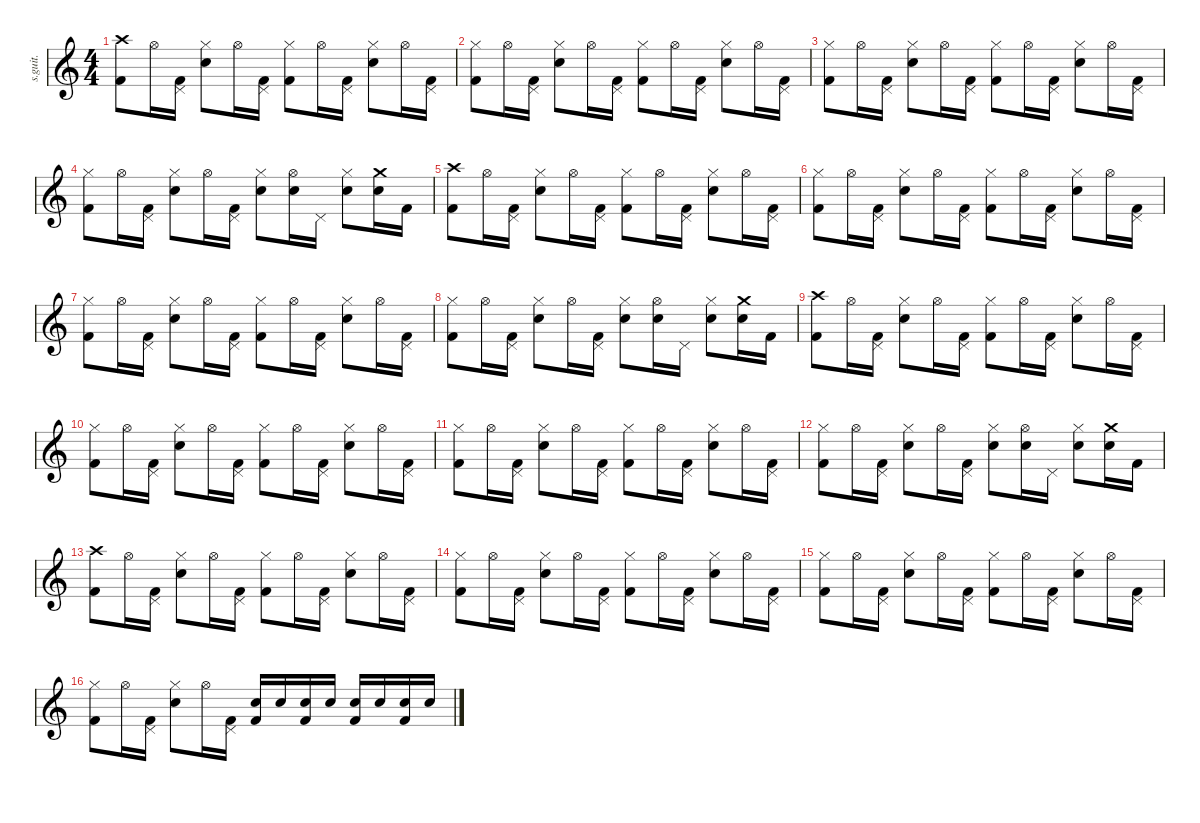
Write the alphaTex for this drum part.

\defaultSystemsLayout 4
\hideDynamics
\bracketExtendMode nobrackets
\track ("Bob Burns (Drums)" "s.guit.") {instrument percussion}
\staff {score}
\articulation defaults
\ts (4 4)
\tempo (60 hide)
\clef g2
\ks c
("Crash high (hit)" "Kick (hit) 2").8{lyrics (0 "") lyrics (1 "") lyrics (2 "") lyrics (3 "") lyrics (4 "") dy f} "Hi-Hat (open)".16{lyrics (0 "") lyrics (1 "") lyrics (2 "") lyrics (3 "") lyrics (4 "")} ("Pedal Hi-Hat (hit)" "Kick (hit) 2").16{lyrics (0 "") lyrics (1 "") lyrics (2 "") lyrics (3 "") lyrics (4 "")} ("Hi-Hat (closed)" "Electric Snare (hit)").8{lyrics (0 "") lyrics (1 "") lyrics (2 "") lyrics (3 "") lyrics (4 "")} "Hi-Hat (open)".16{lyrics (0 "") lyrics (1 "") lyrics (2 "") lyrics (3 "") lyrics (4 "")} ("Pedal Hi-Hat (hit)" "Kick (hit) 2").16{lyrics (0 "") lyrics (1 "") lyrics (2 "") lyrics (3 "") lyrics (4 "")} ("Hi-Hat (closed)" "Kick (hit) 2").8{lyrics (0 "") lyrics (1 "") lyrics (2 "") lyrics (3 "") lyrics (4 "")} "Hi-Hat (open)".16{lyrics (0 "") lyrics (1 "") lyrics (2 "") lyrics (3 "") lyrics (4 "")} ("Pedal Hi-Hat (hit)" "Kick (hit) 2").16{lyrics (0 "") lyrics (1 "") lyrics (2 "") lyrics (3 "") lyrics (4 "")} ("Hi-Hat (closed)" "Electric Snare (hit)").8{lyrics (0 "") lyrics (1 "") lyrics (2 "") lyrics (3 "") lyrics (4 "")} "Hi-Hat (open)".16{lyrics (0 "") lyrics (1 "") lyrics (2 "") lyrics (3 "") lyrics (4 "")} ("Pedal Hi-Hat (hit)" "Kick (hit) 2").16{lyrics (0 "") lyrics (1 "") lyrics (2 "") lyrics (3 "") lyrics (4 "")} |
("Hi-Hat (closed)" "Kick (hit) 2").8{lyrics (0 "") lyrics (1 "") lyrics (2 "") lyrics (3 "") lyrics (4 "")} "Hi-Hat (open)".16{lyrics (0 "") lyrics (1 "") lyrics (2 "") lyrics (3 "") lyrics (4 "")} ("Pedal Hi-Hat (hit)" "Kick (hit) 2").16{lyrics (0 "") lyrics (1 "") lyrics (2 "") lyrics (3 "") lyrics (4 "")} ("Hi-Hat (closed)" "Electric Snare (hit)").8{lyrics (0 "") lyrics (1 "") lyrics (2 "") lyrics (3 "") lyrics (4 "")} "Hi-Hat (open)".16{lyrics (0 "") lyrics (1 "") lyrics (2 "") lyrics (3 "") lyrics (4 "")} ("Pedal Hi-Hat (hit)" "Kick (hit) 2").16{lyrics (0 "") lyrics (1 "") lyrics (2 "") lyrics (3 "") lyrics (4 "")} ("Hi-Hat (closed)" "Kick (hit) 2").8{lyrics (0 "") lyrics (1 "") lyrics (2 "") lyrics (3 "") lyrics (4 "")} "Hi-Hat (open)".16{lyrics (0 "") lyrics (1 "") lyrics (2 "") lyrics (3 "") lyrics (4 "")} ("Pedal Hi-Hat (hit)" "Kick (hit) 2").16{lyrics (0 "") lyrics (1 "") lyrics (2 "") lyrics (3 "") lyrics (4 "")} ("Hi-Hat (closed)" "Electric Snare (hit)").8{lyrics (0 "") lyrics (1 "") lyrics (2 "") lyrics (3 "") lyrics (4 "")} "Hi-Hat (open)".16{lyrics (0 "") lyrics (1 "") lyrics (2 "") lyrics (3 "") lyrics (4 "")} ("Pedal Hi-Hat (hit)" "Kick (hit) 2").16{lyrics (0 "") lyrics (1 "") lyrics (2 "") lyrics (3 "") lyrics (4 "")} |
("Hi-Hat (closed)" "Kick (hit) 2").8{lyrics (0 "") lyrics (1 "") lyrics (2 "") lyrics (3 "") lyrics (4 "")} "Hi-Hat (open)".16{lyrics (0 "") lyrics (1 "") lyrics (2 "") lyrics (3 "") lyrics (4 "")} ("Pedal Hi-Hat (hit)" "Kick (hit) 2").16{lyrics (0 "") lyrics (1 "") lyrics (2 "") lyrics (3 "") lyrics (4 "")} ("Hi-Hat (closed)" "Electric Snare (hit)").8{lyrics (0 "") lyrics (1 "") lyrics (2 "") lyrics (3 "") lyrics (4 "")} "Hi-Hat (open)".16{lyrics (0 "") lyrics (1 "") lyrics (2 "") lyrics (3 "") lyrics (4 "")} ("Pedal Hi-Hat (hit)" "Kick (hit) 2").16{lyrics (0 "") lyrics (1 "") lyrics (2 "") lyrics (3 "") lyrics (4 "")} ("Hi-Hat (closed)" "Kick (hit) 2").8{lyrics (0 "") lyrics (1 "") lyrics (2 "") lyrics (3 "") lyrics (4 "")} "Hi-Hat (open)".16{lyrics (0 "") lyrics (1 "") lyrics (2 "") lyrics (3 "") lyrics (4 "")} ("Pedal Hi-Hat (hit)" "Kick (hit) 2").16{lyrics (0 "") lyrics (1 "") lyrics (2 "") lyrics (3 "") lyrics (4 "")} ("Hi-Hat (closed)" "Electric Snare (hit)").8{lyrics (0 "") lyrics (1 "") lyrics (2 "") lyrics (3 "") lyrics (4 "")} "Hi-Hat (open)".16{lyrics (0 "") lyrics (1 "") lyrics (2 "") lyrics (3 "") lyrics (4 "")} ("Pedal Hi-Hat (hit)" "Kick (hit) 2").16{lyrics (0 "") lyrics (1 "") lyrics (2 "") lyrics (3 "") lyrics (4 "")} |
("Hi-Hat (closed)" "Kick (hit) 2").8{lyrics (0 "") lyrics (1 "") lyrics (2 "") lyrics (3 "") lyrics (4 "")} "Hi-Hat (open)".16{lyrics (0 "") lyrics (1 "") lyrics (2 "") lyrics (3 "") lyrics (4 "")} ("Pedal Hi-Hat (hit)" "Kick (hit) 2").16{lyrics (0 "") lyrics (1 "") lyrics (2 "") lyrics (3 "") lyrics (4 "")} ("Hi-Hat (closed)" "Electric Snare (hit)").8{lyrics (0 "") lyrics (1 "") lyrics (2 "") lyrics (3 "") lyrics (4 "")} "Hi-Hat (open)".16{lyrics (0 "") lyrics (1 "") lyrics (2 "") lyrics (3 "") lyrics (4 "")} ("Pedal Hi-Hat (hit)" "Kick (hit) 2").16{lyrics (0 "") lyrics (1 "") lyrics (2 "") lyrics (3 "") lyrics (4 "")} ("Hi-Hat (closed)" "Electric Snare (hit)").8{lyrics (0 "") lyrics (1 "") lyrics (2 "") lyrics (3 "") lyrics (4 "")} ("Hi-Hat (open)" "Electric Snare (hit)").16{lyrics (0 "") lyrics (1 "") lyrics (2 "") lyrics (3 "") lyrics (4 "")} "Pedal Hi-Hat (hit)".16{lyrics (0 "") lyrics (1 "") lyrics (2 "") lyrics (3 "") lyrics (4 "")} ("Hi-Hat (closed)" "Electric Snare (hit)").8{lyrics (0 "") lyrics (1 "") lyrics (2 "") lyrics (3 "") lyrics (4 "")} ("Crash medium (hit)" "Electric Snare (hit)").16{lyrics (0 "") lyrics (1 "") lyrics (2 "") lyrics (3 "") lyrics (4 "")} "Kick (hit) 2".16{lyrics (0 "") lyrics (1 "") lyrics (2 "") lyrics (3 "") lyrics (4 "")} |
("Crash high (hit)" "Kick (hit) 2").8{lyrics (0 "") lyrics (1 "") lyrics (2 "") lyrics (3 "") lyrics (4 "")} "Hi-Hat (open)".16{lyrics (0 "") lyrics (1 "") lyrics (2 "") lyrics (3 "") lyrics (4 "")} ("Pedal Hi-Hat (hit)" "Kick (hit) 2").16{lyrics (0 "") lyrics (1 "") lyrics (2 "") lyrics (3 "") lyrics (4 "")} ("Hi-Hat (closed)" "Electric Snare (hit)").8{lyrics (0 "") lyrics (1 "") lyrics (2 "") lyrics (3 "") lyrics (4 "")} "Hi-Hat (open)".16{lyrics (0 "") lyrics (1 "") lyrics (2 "") lyrics (3 "") lyrics (4 "")} ("Pedal Hi-Hat (hit)" "Kick (hit) 2").16{lyrics (0 "") lyrics (1 "") lyrics (2 "") lyrics (3 "") lyrics (4 "")} ("Hi-Hat (closed)" "Kick (hit) 2").8{lyrics (0 "") lyrics (1 "") lyrics (2 "") lyrics (3 "") lyrics (4 "")} "Hi-Hat (open)".16{lyrics (0 "") lyrics (1 "") lyrics (2 "") lyrics (3 "") lyrics (4 "")} ("Pedal Hi-Hat (hit)" "Kick (hit) 2").16{lyrics (0 "") lyrics (1 "") lyrics (2 "") lyrics (3 "") lyrics (4 "")} ("Hi-Hat (closed)" "Electric Snare (hit)").8{lyrics (0 "") lyrics (1 "") lyrics (2 "") lyrics (3 "") lyrics (4 "")} "Hi-Hat (open)".16{lyrics (0 "") lyrics (1 "") lyrics (2 "") lyrics (3 "") lyrics (4 "")} ("Pedal Hi-Hat (hit)" "Kick (hit) 2").16{lyrics (0 "") lyrics (1 "") lyrics (2 "") lyrics (3 "") lyrics (4 "")} |
("Hi-Hat (closed)" "Kick (hit) 2").8{lyrics (0 "") lyrics (1 "") lyrics (2 "") lyrics (3 "") lyrics (4 "")} "Hi-Hat (open)".16{lyrics (0 "") lyrics (1 "") lyrics (2 "") lyrics (3 "") lyrics (4 "")} ("Pedal Hi-Hat (hit)" "Kick (hit) 2").16{lyrics (0 "") lyrics (1 "") lyrics (2 "") lyrics (3 "") lyrics (4 "")} ("Hi-Hat (closed)" "Electric Snare (hit)").8{lyrics (0 "") lyrics (1 "") lyrics (2 "") lyrics (3 "") lyrics (4 "")} "Hi-Hat (open)".16{lyrics (0 "") lyrics (1 "") lyrics (2 "") lyrics (3 "") lyrics (4 "")} ("Pedal Hi-Hat (hit)" "Kick (hit) 2").16{lyrics (0 "") lyrics (1 "") lyrics (2 "") lyrics (3 "") lyrics (4 "")} ("Hi-Hat (closed)" "Kick (hit) 2").8{lyrics (0 "") lyrics (1 "") lyrics (2 "") lyrics (3 "") lyrics (4 "")} "Hi-Hat (open)".16{lyrics (0 "") lyrics (1 "") lyrics (2 "") lyrics (3 "") lyrics (4 "")} ("Pedal Hi-Hat (hit)" "Kick (hit) 2").16{lyrics (0 "") lyrics (1 "") lyrics (2 "") lyrics (3 "") lyrics (4 "")} ("Hi-Hat (closed)" "Electric Snare (hit)").8{lyrics (0 "") lyrics (1 "") lyrics (2 "") lyrics (3 "") lyrics (4 "")} "Hi-Hat (open)".16{lyrics (0 "") lyrics (1 "") lyrics (2 "") lyrics (3 "") lyrics (4 "")} ("Pedal Hi-Hat (hit)" "Kick (hit) 2").16{lyrics (0 "") lyrics (1 "") lyrics (2 "") lyrics (3 "") lyrics (4 "")} |
("Hi-Hat (closed)" "Kick (hit) 2").8{lyrics (0 "") lyrics (1 "") lyrics (2 "") lyrics (3 "") lyrics (4 "")} "Hi-Hat (open)".16{lyrics (0 "") lyrics (1 "") lyrics (2 "") lyrics (3 "") lyrics (4 "")} ("Pedal Hi-Hat (hit)" "Kick (hit) 2").16{lyrics (0 "") lyrics (1 "") lyrics (2 "") lyrics (3 "") lyrics (4 "")} ("Hi-Hat (closed)" "Electric Snare (hit)").8{lyrics (0 "") lyrics (1 "") lyrics (2 "") lyrics (3 "") lyrics (4 "")} "Hi-Hat (open)".16{lyrics (0 "") lyrics (1 "") lyrics (2 "") lyrics (3 "") lyrics (4 "")} ("Pedal Hi-Hat (hit)" "Kick (hit) 2").16{lyrics (0 "") lyrics (1 "") lyrics (2 "") lyrics (3 "") lyrics (4 "")} ("Hi-Hat (closed)" "Kick (hit) 2").8{lyrics (0 "") lyrics (1 "") lyrics (2 "") lyrics (3 "") lyrics (4 "")} "Hi-Hat (open)".16{lyrics (0 "") lyrics (1 "") lyrics (2 "") lyrics (3 "") lyrics (4 "")} ("Pedal Hi-Hat (hit)" "Kick (hit) 2").16{lyrics (0 "") lyrics (1 "") lyrics (2 "") lyrics (3 "") lyrics (4 "")} ("Hi-Hat (closed)" "Electric Snare (hit)").8{lyrics (0 "") lyrics (1 "") lyrics (2 "") lyrics (3 "") lyrics (4 "")} "Hi-Hat (open)".16{lyrics (0 "") lyrics (1 "") lyrics (2 "") lyrics (3 "") lyrics (4 "")} ("Pedal Hi-Hat (hit)" "Kick (hit) 2").16{lyrics (0 "") lyrics (1 "") lyrics (2 "") lyrics (3 "") lyrics (4 "")} |
("Hi-Hat (closed)" "Kick (hit) 2").8{lyrics (0 "") lyrics (1 "") lyrics (2 "") lyrics (3 "") lyrics (4 "")} "Hi-Hat (open)".16{lyrics (0 "") lyrics (1 "") lyrics (2 "") lyrics (3 "") lyrics (4 "")} ("Pedal Hi-Hat (hit)" "Kick (hit) 2").16{lyrics (0 "") lyrics (1 "") lyrics (2 "") lyrics (3 "") lyrics (4 "")} ("Hi-Hat (closed)" "Electric Snare (hit)").8{lyrics (0 "") lyrics (1 "") lyrics (2 "") lyrics (3 "") lyrics (4 "")} "Hi-Hat (open)".16{lyrics (0 "") lyrics (1 "") lyrics (2 "") lyrics (3 "") lyrics (4 "")} ("Pedal Hi-Hat (hit)" "Kick (hit) 2").16{lyrics (0 "") lyrics (1 "") lyrics (2 "") lyrics (3 "") lyrics (4 "")} ("Hi-Hat (closed)" "Electric Snare (hit)").8{lyrics (0 "") lyrics (1 "") lyrics (2 "") lyrics (3 "") lyrics (4 "")} ("Hi-Hat (open)" "Electric Snare (hit)").16{lyrics (0 "") lyrics (1 "") lyrics (2 "") lyrics (3 "") lyrics (4 "")} "Pedal Hi-Hat (hit)".16{lyrics (0 "") lyrics (1 "") lyrics (2 "") lyrics (3 "") lyrics (4 "")} ("Hi-Hat (closed)" "Electric Snare (hit)").8{lyrics (0 "") lyrics (1 "") lyrics (2 "") lyrics (3 "") lyrics (4 "")} ("Crash medium (hit)" "Electric Snare (hit)").16{lyrics (0 "") lyrics (1 "") lyrics (2 "") lyrics (3 "") lyrics (4 "")} "Kick (hit) 2".16{lyrics (0 "") lyrics (1 "") lyrics (2 "") lyrics (3 "") lyrics (4 "")} |
("Crash high (hit)" "Kick (hit) 2").8{lyrics (0 "") lyrics (1 "") lyrics (2 "") lyrics (3 "") lyrics (4 "")} "Hi-Hat (open)".16{lyrics (0 "") lyrics (1 "") lyrics (2 "") lyrics (3 "") lyrics (4 "")} ("Pedal Hi-Hat (hit)" "Kick (hit) 2").16{lyrics (0 "") lyrics (1 "") lyrics (2 "") lyrics (3 "") lyrics (4 "")} ("Hi-Hat (closed)" "Electric Snare (hit)").8{lyrics (0 "") lyrics (1 "") lyrics (2 "") lyrics (3 "") lyrics (4 "")} "Hi-Hat (open)".16{lyrics (0 "") lyrics (1 "") lyrics (2 "") lyrics (3 "") lyrics (4 "")} ("Pedal Hi-Hat (hit)" "Kick (hit) 2").16{lyrics (0 "") lyrics (1 "") lyrics (2 "") lyrics (3 "") lyrics (4 "")} ("Hi-Hat (closed)" "Kick (hit) 2").8{lyrics (0 "") lyrics (1 "") lyrics (2 "") lyrics (3 "") lyrics (4 "")} "Hi-Hat (open)".16{lyrics (0 "") lyrics (1 "") lyrics (2 "") lyrics (3 "") lyrics (4 "")} ("Pedal Hi-Hat (hit)" "Kick (hit) 2").16{lyrics (0 "") lyrics (1 "") lyrics (2 "") lyrics (3 "") lyrics (4 "")} ("Hi-Hat (closed)" "Electric Snare (hit)").8{lyrics (0 "") lyrics (1 "") lyrics (2 "") lyrics (3 "") lyrics (4 "")} "Hi-Hat (open)".16{lyrics (0 "") lyrics (1 "") lyrics (2 "") lyrics (3 "") lyrics (4 "")} ("Pedal Hi-Hat (hit)" "Kick (hit) 2").16{lyrics (0 "") lyrics (1 "") lyrics (2 "") lyrics (3 "") lyrics (4 "")} |
("Hi-Hat (closed)" "Kick (hit) 2").8{lyrics (0 "") lyrics (1 "") lyrics (2 "") lyrics (3 "") lyrics (4 "")} "Hi-Hat (open)".16{lyrics (0 "") lyrics (1 "") lyrics (2 "") lyrics (3 "") lyrics (4 "")} ("Pedal Hi-Hat (hit)" "Kick (hit) 2").16{lyrics (0 "") lyrics (1 "") lyrics (2 "") lyrics (3 "") lyrics (4 "")} ("Hi-Hat (closed)" "Electric Snare (hit)").8{lyrics (0 "") lyrics (1 "") lyrics (2 "") lyrics (3 "") lyrics (4 "")} "Hi-Hat (open)".16{lyrics (0 "") lyrics (1 "") lyrics (2 "") lyrics (3 "") lyrics (4 "")} ("Pedal Hi-Hat (hit)" "Kick (hit) 2").16{lyrics (0 "") lyrics (1 "") lyrics (2 "") lyrics (3 "") lyrics (4 "")} ("Hi-Hat (closed)" "Kick (hit) 2").8{lyrics (0 "") lyrics (1 "") lyrics (2 "") lyrics (3 "") lyrics (4 "")} "Hi-Hat (open)".16{lyrics (0 "") lyrics (1 "") lyrics (2 "") lyrics (3 "") lyrics (4 "")} ("Pedal Hi-Hat (hit)" "Kick (hit) 2").16{lyrics (0 "") lyrics (1 "") lyrics (2 "") lyrics (3 "") lyrics (4 "")} ("Hi-Hat (closed)" "Electric Snare (hit)").8{lyrics (0 "") lyrics (1 "") lyrics (2 "") lyrics (3 "") lyrics (4 "")} "Hi-Hat (open)".16{lyrics (0 "") lyrics (1 "") lyrics (2 "") lyrics (3 "") lyrics (4 "")} ("Pedal Hi-Hat (hit)" "Kick (hit) 2").16{lyrics (0 "") lyrics (1 "") lyrics (2 "") lyrics (3 "") lyrics (4 "")} |
("Hi-Hat (closed)" "Kick (hit) 2").8{lyrics (0 "") lyrics (1 "") lyrics (2 "") lyrics (3 "") lyrics (4 "")} "Hi-Hat (open)".16{lyrics (0 "") lyrics (1 "") lyrics (2 "") lyrics (3 "") lyrics (4 "")} ("Pedal Hi-Hat (hit)" "Kick (hit) 2").16{lyrics (0 "") lyrics (1 "") lyrics (2 "") lyrics (3 "") lyrics (4 "")} ("Hi-Hat (closed)" "Electric Snare (hit)").8{lyrics (0 "") lyrics (1 "") lyrics (2 "") lyrics (3 "") lyrics (4 "")} "Hi-Hat (open)".16{lyrics (0 "") lyrics (1 "") lyrics (2 "") lyrics (3 "") lyrics (4 "")} ("Pedal Hi-Hat (hit)" "Kick (hit) 2").16{lyrics (0 "") lyrics (1 "") lyrics (2 "") lyrics (3 "") lyrics (4 "")} ("Hi-Hat (closed)" "Kick (hit) 2").8{lyrics (0 "") lyrics (1 "") lyrics (2 "") lyrics (3 "") lyrics (4 "")} "Hi-Hat (open)".16{lyrics (0 "") lyrics (1 "") lyrics (2 "") lyrics (3 "") lyrics (4 "")} ("Pedal Hi-Hat (hit)" "Kick (hit) 2").16{lyrics (0 "") lyrics (1 "") lyrics (2 "") lyrics (3 "") lyrics (4 "")} ("Hi-Hat (closed)" "Electric Snare (hit)").8{lyrics (0 "") lyrics (1 "") lyrics (2 "") lyrics (3 "") lyrics (4 "")} "Hi-Hat (open)".16{lyrics (0 "") lyrics (1 "") lyrics (2 "") lyrics (3 "") lyrics (4 "")} ("Pedal Hi-Hat (hit)" "Kick (hit) 2").16{lyrics (0 "") lyrics (1 "") lyrics (2 "") lyrics (3 "") lyrics (4 "")} |
("Hi-Hat (closed)" "Kick (hit) 2").8{lyrics (0 "") lyrics (1 "") lyrics (2 "") lyrics (3 "") lyrics (4 "")} "Hi-Hat (open)".16{lyrics (0 "") lyrics (1 "") lyrics (2 "") lyrics (3 "") lyrics (4 "")} ("Pedal Hi-Hat (hit)" "Kick (hit) 2").16{lyrics (0 "") lyrics (1 "") lyrics (2 "") lyrics (3 "") lyrics (4 "")} ("Hi-Hat (closed)" "Electric Snare (hit)").8{lyrics (0 "") lyrics (1 "") lyrics (2 "") lyrics (3 "") lyrics (4 "")} "Hi-Hat (open)".16{lyrics (0 "") lyrics (1 "") lyrics (2 "") lyrics (3 "") lyrics (4 "")} ("Pedal Hi-Hat (hit)" "Kick (hit) 2").16{lyrics (0 "") lyrics (1 "") lyrics (2 "") lyrics (3 "") lyrics (4 "")} ("Hi-Hat (closed)" "Electric Snare (hit)").8{lyrics (0 "") lyrics (1 "") lyrics (2 "") lyrics (3 "") lyrics (4 "")} ("Hi-Hat (open)" "Electric Snare (hit)").16{lyrics (0 "") lyrics (1 "") lyrics (2 "") lyrics (3 "") lyrics (4 "")} "Pedal Hi-Hat (hit)".16{lyrics (0 "") lyrics (1 "") lyrics (2 "") lyrics (3 "") lyrics (4 "")} ("Hi-Hat (closed)" "Electric Snare (hit)").8{lyrics (0 "") lyrics (1 "") lyrics (2 "") lyrics (3 "") lyrics (4 "")} ("Crash medium (hit)" "Electric Snare (hit)").16{lyrics (0 "") lyrics (1 "") lyrics (2 "") lyrics (3 "") lyrics (4 "")} "Kick (hit) 2".16{lyrics (0 "") lyrics (1 "") lyrics (2 "") lyrics (3 "") lyrics (4 "")} |
("Crash high (hit)" "Kick (hit) 2").8{lyrics (0 "") lyrics (1 "") lyrics (2 "") lyrics (3 "") lyrics (4 "")} "Hi-Hat (open)".16{lyrics (0 "") lyrics (1 "") lyrics (2 "") lyrics (3 "") lyrics (4 "")} ("Pedal Hi-Hat (hit)" "Kick (hit) 2").16{lyrics (0 "") lyrics (1 "") lyrics (2 "") lyrics (3 "") lyrics (4 "")} ("Hi-Hat (closed)" "Electric Snare (hit)").8{lyrics (0 "") lyrics (1 "") lyrics (2 "") lyrics (3 "") lyrics (4 "")} "Hi-Hat (open)".16{lyrics (0 "") lyrics (1 "") lyrics (2 "") lyrics (3 "") lyrics (4 "")} ("Pedal Hi-Hat (hit)" "Kick (hit) 2").16{lyrics (0 "") lyrics (1 "") lyrics (2 "") lyrics (3 "") lyrics (4 "")} ("Hi-Hat (closed)" "Kick (hit) 2").8{lyrics (0 "") lyrics (1 "") lyrics (2 "") lyrics (3 "") lyrics (4 "")} "Hi-Hat (open)".16{lyrics (0 "") lyrics (1 "") lyrics (2 "") lyrics (3 "") lyrics (4 "")} ("Pedal Hi-Hat (hit)" "Kick (hit) 2").16{lyrics (0 "") lyrics (1 "") lyrics (2 "") lyrics (3 "") lyrics (4 "")} ("Hi-Hat (closed)" "Electric Snare (hit)").8{lyrics (0 "") lyrics (1 "") lyrics (2 "") lyrics (3 "") lyrics (4 "")} "Hi-Hat (open)".16{lyrics (0 "") lyrics (1 "") lyrics (2 "") lyrics (3 "") lyrics (4 "")} ("Pedal Hi-Hat (hit)" "Kick (hit) 2").16{lyrics (0 "") lyrics (1 "") lyrics (2 "") lyrics (3 "") lyrics (4 "")} |
("Hi-Hat (closed)" "Kick (hit) 2").8{lyrics (0 "") lyrics (1 "") lyrics (2 "") lyrics (3 "") lyrics (4 "")} "Hi-Hat (open)".16{lyrics (0 "") lyrics (1 "") lyrics (2 "") lyrics (3 "") lyrics (4 "")} ("Pedal Hi-Hat (hit)" "Kick (hit) 2").16{lyrics (0 "") lyrics (1 "") lyrics (2 "") lyrics (3 "") lyrics (4 "")} ("Hi-Hat (closed)" "Electric Snare (hit)").8{lyrics (0 "") lyrics (1 "") lyrics (2 "") lyrics (3 "") lyrics (4 "")} "Hi-Hat (open)".16{lyrics (0 "") lyrics (1 "") lyrics (2 "") lyrics (3 "") lyrics (4 "")} ("Pedal Hi-Hat (hit)" "Kick (hit) 2").16{lyrics (0 "") lyrics (1 "") lyrics (2 "") lyrics (3 "") lyrics (4 "")} ("Hi-Hat (closed)" "Kick (hit) 2").8{lyrics (0 "") lyrics (1 "") lyrics (2 "") lyrics (3 "") lyrics (4 "")} "Hi-Hat (open)".16{lyrics (0 "") lyrics (1 "") lyrics (2 "") lyrics (3 "") lyrics (4 "")} ("Pedal Hi-Hat (hit)" "Kick (hit) 2").16{lyrics (0 "") lyrics (1 "") lyrics (2 "") lyrics (3 "") lyrics (4 "")} ("Hi-Hat (closed)" "Electric Snare (hit)").8{lyrics (0 "") lyrics (1 "") lyrics (2 "") lyrics (3 "") lyrics (4 "")} "Hi-Hat (open)".16{lyrics (0 "") lyrics (1 "") lyrics (2 "") lyrics (3 "") lyrics (4 "")} ("Pedal Hi-Hat (hit)" "Kick (hit) 2").16{lyrics (0 "") lyrics (1 "") lyrics (2 "") lyrics (3 "") lyrics (4 "")} |
("Hi-Hat (closed)" "Kick (hit) 2").8{lyrics (0 "") lyrics (1 "") lyrics (2 "") lyrics (3 "") lyrics (4 "")} "Hi-Hat (open)".16{lyrics (0 "") lyrics (1 "") lyrics (2 "") lyrics (3 "") lyrics (4 "")} ("Pedal Hi-Hat (hit)" "Kick (hit) 2").16{lyrics (0 "") lyrics (1 "") lyrics (2 "") lyrics (3 "") lyrics (4 "")} ("Hi-Hat (closed)" "Electric Snare (hit)").8{lyrics (0 "") lyrics (1 "") lyrics (2 "") lyrics (3 "") lyrics (4 "")} "Hi-Hat (open)".16{lyrics (0 "") lyrics (1 "") lyrics (2 "") lyrics (3 "") lyrics (4 "")} ("Pedal Hi-Hat (hit)" "Kick (hit) 2").16{lyrics (0 "") lyrics (1 "") lyrics (2 "") lyrics (3 "") lyrics (4 "")} ("Hi-Hat (closed)" "Kick (hit) 2").8{lyrics (0 "") lyrics (1 "") lyrics (2 "") lyrics (3 "") lyrics (4 "")} "Hi-Hat (open)".16{lyrics (0 "") lyrics (1 "") lyrics (2 "") lyrics (3 "") lyrics (4 "")} ("Pedal Hi-Hat (hit)" "Kick (hit) 2").16{lyrics (0 "") lyrics (1 "") lyrics (2 "") lyrics (3 "") lyrics (4 "")} ("Hi-Hat (closed)" "Electric Snare (hit)").8{lyrics (0 "") lyrics (1 "") lyrics (2 "") lyrics (3 "") lyrics (4 "")} "Hi-Hat (open)".16{lyrics (0 "") lyrics (1 "") lyrics (2 "") lyrics (3 "") lyrics (4 "")} ("Pedal Hi-Hat (hit)" "Kick (hit) 2").16{lyrics (0 "") lyrics (1 "") lyrics (2 "") lyrics (3 "") lyrics (4 "")} |
("Hi-Hat (closed)" "Kick (hit) 2").8{lyrics (0 "") lyrics (1 "") lyrics (2 "") lyrics (3 "") lyrics (4 "")} "Hi-Hat (open)".16{lyrics (0 "") lyrics (1 "") lyrics (2 "") lyrics (3 "") lyrics (4 "")} ("Pedal Hi-Hat (hit)" "Kick (hit) 2").16{lyrics (0 "") lyrics (1 "") lyrics (2 "") lyrics (3 "") lyrics (4 "")} ("Hi-Hat (closed)" "Electric Snare (hit)").8{lyrics (0 "") lyrics (1 "") lyrics (2 "") lyrics (3 "") lyrics (4 "")} "Hi-Hat (open)".16{lyrics (0 "") lyrics (1 "") lyrics (2 "") lyrics (3 "") lyrics (4 "")} ("Pedal Hi-Hat (hit)" "Kick (hit) 2").16{lyrics (0 "") lyrics (1 "") lyrics (2 "") lyrics (3 "") lyrics (4 "")} ("Electric Snare (hit)" "Kick (hit) 2").16{lyrics (0 "") lyrics (1 "") lyrics (2 "") lyrics (3 "") lyrics (4 "")} "Electric Snare (hit)".16{lyrics (0 "") lyrics (1 "") lyrics (2 "") lyrics (3 "") lyrics (4 "")} ("Electric Snare (hit)" "Kick (hit) 2").16{lyrics (0 "") lyrics (1 "") lyrics (2 "") lyrics (3 "") lyrics (4 "")} "Electric Snare (hit)".16{lyrics (0 "") lyrics (1 "") lyrics (2 "") lyrics (3 "") lyrics (4 "")} ("Electric Snare (hit)" "Kick (hit) 2").16{lyrics (0 "") lyrics (1 "") lyrics (2 "") lyrics (3 "") lyrics (4 "")} "Electric Snare (hit)".16{lyrics (0 "") lyrics (1 "") lyrics (2 "") lyrics (3 "") lyrics (4 "")} ("Electric Snare (hit)" "Kick (hit) 2").16{lyrics (0 "") lyrics (1 "") lyrics (2 "") lyrics (3 "") lyrics (4 "")} "Electric Snare (hit)".16{lyrics (0 "") lyrics (1 "") lyrics (2 "") lyrics (3 "") lyrics (4 "")}
